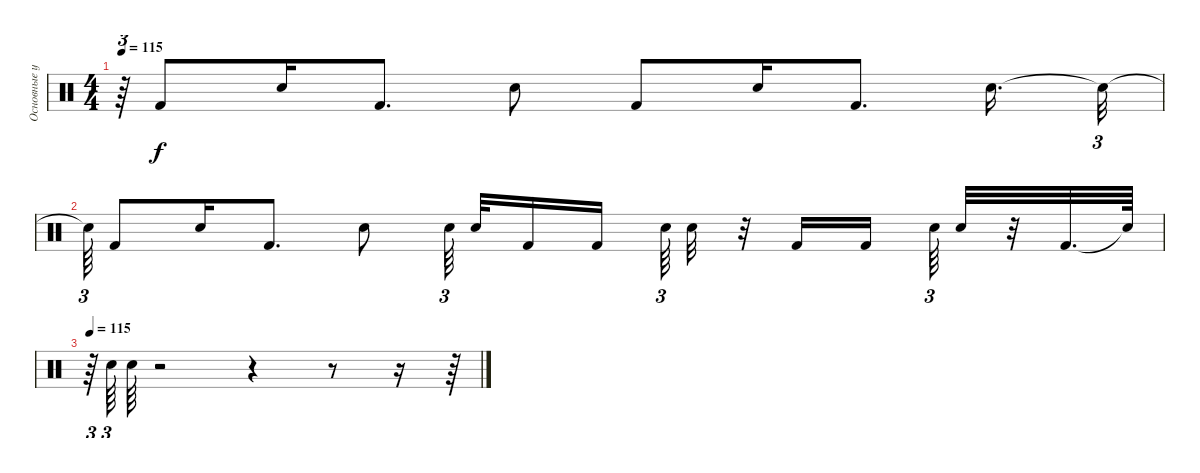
\track ("Основные ударные" "Основные у") {instrument percussion}
\staff {score}
\articulation defaults
\ts (4 4)
\tempo 115
\clef neutral
\ks c
r.64{tu (3 2) dy f} "Kick (hit) 2".8 "Electric Snare (hit)".16 "Kick (hit) 2".8{d} "Electric Snare (hit)".8 "Kick (hit) 2".8 "Electric Snare (hit)".16 "Kick (hit) 2".8{d} "Electric Snare (hit)".16{d} "Snare (hit)"{t}.32{tu (3 2)} |
"Snare (hit)"{t}.64{tu (3 2)} "Kick (hit) 2".8 "Electric Snare (hit)".16 "Kick (hit) 2".8{d} "Electric Snare (hit)".8 "Electric Snare (hit)".64{tu (3 2) beam splitsecondary} "Electric Snare (hit)".32 "Kick (hit) 2".16 "Kick (hit) 2".16{beam splitsecondary} "Electric Snare (hit)".64{tu (3 2)} "Electric Snare (hit)".32 r.32 "Kick (hit) 2".16 "Kick (hit) 2".16{beam splitsecondary} "Electric Snare (hit)".64{tu (3 2)} "Electric Snare (hit)".32 r.32 "Kick (hit) 2".32{d} "Snare (hit)"{t}.64 |
\tempo 115
r.64{tu (3 2)} "Electric Snare (hit)".64{tu (3 2)} "Electric Snare (hit)".64 r.2 r.4 r.8 r.16 r.64
